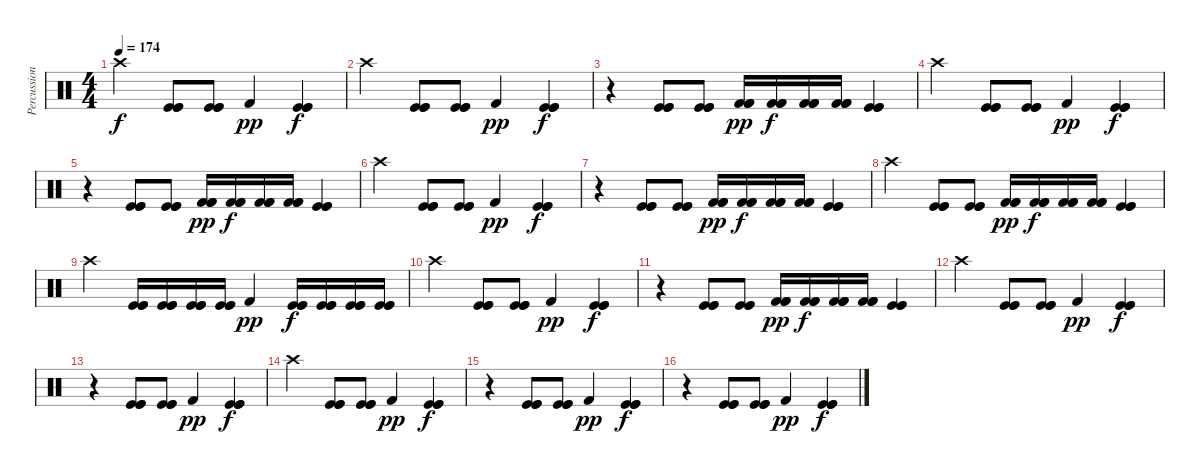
\track ("Percussions" "Percussion") {instrument percussion}
\staff {score}
\articulation defaults
\ts (4 4)
\tempo 174
\clef neutral
\ks c "Crash high (hit)".4{dy f}
("Kick (hit)" "Kick (hit)" "Kick (hit)").8 ("Kick (hit)" "Kick (hit)" "Kick (hit)").8 "Kick (hit) 2".4{dy pp} ("Kick (hit)" "Kick (hit)" "Kick (hit)").4{dy f} |
"Crash high (hit)".4 ("Kick (hit)" "Kick (hit)" "Kick (hit)").8 ("Kick (hit)" "Kick (hit)" "Kick (hit)").8 "Kick (hit) 2".4{dy pp} ("Kick (hit)" "Kick (hit)" "Kick (hit)").4{dy f} |
r.4 ("Kick (hit)" "Kick (hit)" "Kick (hit)").8 ("Kick (hit)" "Kick (hit)" "Kick (hit)").8 ("Kick (hit) 2" "Kick (hit) 2" "Kick (hit) 2").16{dy pp} ("Kick (hit) 2" "Kick (hit) 2" "Kick (hit) 2").16{dy f} ("Kick (hit) 2" "Kick (hit) 2" "Kick (hit) 2").16 ("Kick (hit) 2" "Kick (hit) 2" "Kick (hit) 2").16 ("Kick (hit)" "Kick (hit)" "Kick (hit)").4 |
"Crash high (hit)".4 ("Kick (hit)" "Kick (hit)" "Kick (hit)").8 ("Kick (hit)" "Kick (hit)" "Kick (hit)").8 "Kick (hit) 2".4{dy pp} ("Kick (hit)" "Kick (hit)" "Kick (hit)").4{dy f} |
r.4 ("Kick (hit)" "Kick (hit)" "Kick (hit)").8 ("Kick (hit)" "Kick (hit)" "Kick (hit)").8 ("Kick (hit) 2" "Kick (hit) 2" "Kick (hit) 2").16{dy pp} ("Kick (hit) 2" "Kick (hit) 2" "Kick (hit) 2").16{dy f} ("Kick (hit) 2" "Kick (hit) 2" "Kick (hit) 2").16 ("Kick (hit) 2" "Kick (hit) 2" "Kick (hit) 2").16 ("Kick (hit)" "Kick (hit)" "Kick (hit)").4 |
"Crash high (hit)".4 ("Kick (hit)" "Kick (hit)" "Kick (hit)").8 ("Kick (hit)" "Kick (hit)" "Kick (hit)").8 "Kick (hit) 2".4{dy pp} ("Kick (hit)" "Kick (hit)" "Kick (hit)").4{dy f} |
r.4 ("Kick (hit)" "Kick (hit)" "Kick (hit)").8 ("Kick (hit)" "Kick (hit)" "Kick (hit)").8 ("Kick (hit) 2" "Kick (hit) 2" "Kick (hit) 2").16{dy pp} ("Kick (hit) 2" "Kick (hit) 2" "Kick (hit) 2").16{dy f} ("Kick (hit) 2" "Kick (hit) 2" "Kick (hit) 2").16 ("Kick (hit) 2" "Kick (hit) 2" "Kick (hit) 2").16 ("Kick (hit)" "Kick (hit)" "Kick (hit)").4 |
"Crash high (hit)".4 ("Kick (hit)" "Kick (hit)" "Kick (hit)").8 ("Kick (hit)" "Kick (hit)" "Kick (hit)").8 ("Kick (hit) 2" "Kick (hit) 2" "Kick (hit) 2").16{dy pp} ("Kick (hit) 2" "Kick (hit) 2" "Kick (hit) 2").16{dy f} ("Kick (hit) 2" "Kick (hit) 2" "Kick (hit) 2").16 ("Kick (hit) 2" "Kick (hit) 2" "Kick (hit) 2").16 ("Kick (hit)" "Kick (hit)" "Kick (hit)").4 |
"Crash high (hit)".4 ("Kick (hit)" "Kick (hit)" "Kick (hit)").16 ("Kick (hit)" "Kick (hit)" "Kick (hit)").16 ("Kick (hit)" "Kick (hit)" "Kick (hit)").16 ("Kick (hit)" "Kick (hit)" "Kick (hit)").16 "Kick (hit) 2".4{dy pp} ("Kick (hit)" "Kick (hit)" "Kick (hit)").16{dy f} ("Kick (hit)" "Kick (hit)" "Kick (hit)").16 ("Kick (hit)" "Kick (hit)" "Kick (hit)").16 ("Kick (hit)" "Kick (hit)" "Kick (hit)").16 |
"Crash high (hit)".4 ("Kick (hit)" "Kick (hit)" "Kick (hit)").8 ("Kick (hit)" "Kick (hit)" "Kick (hit)").8 "Kick (hit) 2".4{dy pp} ("Kick (hit)" "Kick (hit)" "Kick (hit)").4{dy f} |
r.4 ("Kick (hit)" "Kick (hit)" "Kick (hit)").8 ("Kick (hit)" "Kick (hit)" "Kick (hit)").8 ("Kick (hit) 2" "Kick (hit) 2" "Kick (hit) 2").16{dy pp} ("Kick (hit) 2" "Kick (hit) 2" "Kick (hit) 2").16{dy f} ("Kick (hit) 2" "Kick (hit) 2" "Kick (hit) 2").16 ("Kick (hit) 2" "Kick (hit) 2" "Kick (hit) 2").16 ("Kick (hit)" "Kick (hit)" "Kick (hit)").4 |
"Crash high (hit)".4 ("Kick (hit)" "Kick (hit)" "Kick (hit)").8 ("Kick (hit)" "Kick (hit)" "Kick (hit)").8 "Kick (hit) 2".4{dy pp} ("Kick (hit)" "Kick (hit)" "Kick (hit)").4{dy f} |
r.4 ("Kick (hit)" "Kick (hit)" "Kick (hit)").8 ("Kick (hit)" "Kick (hit)" "Kick (hit)").8 "Kick (hit) 2".4{dy pp} ("Kick (hit)" "Kick (hit)" "Kick (hit)").4{dy f} |
"Crash high (hit)".4 ("Kick (hit)" "Kick (hit)" "Kick (hit)").8 ("Kick (hit)" "Kick (hit)" "Kick (hit)").8 "Kick (hit) 2".4{dy pp} ("Kick (hit)" "Kick (hit)" "Kick (hit)").4{dy f} |
r.4 ("Kick (hit)" "Kick (hit)" "Kick (hit)").8 ("Kick (hit)" "Kick (hit)" "Kick (hit)").8 "Kick (hit) 2".4{dy pp} ("Kick (hit)" "Kick (hit)" "Kick (hit)").4{dy f} |
r.4 ("Kick (hit)" "Kick (hit)" "Kick (hit)").8 ("Kick (hit)" "Kick (hit)" "Kick (hit)").8 "Kick (hit) 2".4{dy pp} ("Kick (hit)" "Kick (hit)" "Kick (hit)").4{dy f}
